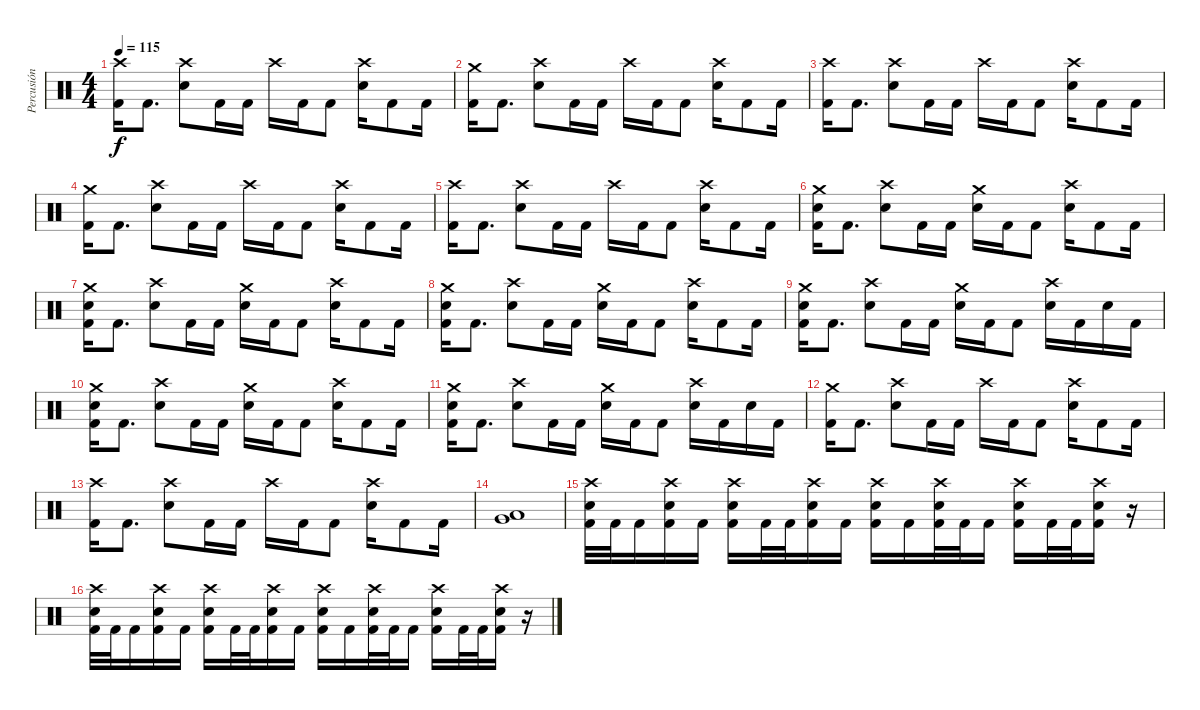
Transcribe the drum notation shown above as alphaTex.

\track ("Percusión" "Percusión") {instrument percussion}
\staff {score}
\articulation defaults
\ts (4 4)
\tempo 115
\clef neutral
\ks c
("Crash high (hit)" "Kick (hit) 2").16{dy f} "Kick (hit) 2".8{d} ("Crash high (hit)" "Snare (hit) 2").8 "Kick (hit) 2".16 "Kick (hit) 2".16 "Crash high (hit)".16 "Kick (hit) 2".16 "Kick (hit) 2".8 ("Crash high (hit)" "Snare (hit) 2").16 "Kick (hit) 2".8 "Kick (hit) 2".16 |
("Crash medium (hit)" "Kick (hit) 2").16 "Kick (hit) 2".8{d} ("Crash high (hit)" "Snare (hit) 2").8 "Kick (hit) 2".16 "Kick (hit) 2".16 "Crash high (hit)".16 "Kick (hit) 2".16 "Kick (hit) 2".8 ("Crash high (hit)" "Snare (hit) 2").16 "Kick (hit) 2".8 "Kick (hit) 2".16 |
("Crash high (hit)" "Kick (hit) 2").16 "Kick (hit) 2".8{d} ("Crash high (hit)" "Snare (hit) 2").8 "Kick (hit) 2".16 "Kick (hit) 2".16 "Crash high (hit)".16 "Kick (hit) 2".16 "Kick (hit) 2".8 ("Crash high (hit)" "Snare (hit) 2").16 "Kick (hit) 2".8 "Kick (hit) 2".16 |
("Crash medium (hit)" "Kick (hit) 2").16 "Kick (hit) 2".8{d} ("Crash high (hit)" "Snare (hit) 2").8 "Kick (hit) 2".16 "Kick (hit) 2".16 "Crash high (hit)".16 "Kick (hit) 2".16 "Kick (hit) 2".8 ("Crash high (hit)" "Snare (hit) 2").16 "Kick (hit) 2".8 "Kick (hit) 2".16 |
("Crash high (hit)" "Kick (hit) 2").16 "Kick (hit) 2".8{d} ("Crash high (hit)" "Snare (hit) 2").8 "Kick (hit) 2".16 "Kick (hit) 2".16 "Crash high (hit)".16 "Kick (hit) 2".16 "Kick (hit) 2".8 ("Crash high (hit)" "Snare (hit) 2").16 "Kick (hit) 2".8 "Kick (hit) 2".16 |
("Crash medium (hit)" "Snare (hit) 2" "Kick (hit) 2").16 "Kick (hit) 2".8{d} ("Crash high (hit)" "Snare (hit) 2").8 "Kick (hit) 2".16 "Kick (hit) 2".16 ("Crash medium (hit)" "Snare (hit) 2").16 "Kick (hit) 2".16 "Kick (hit) 2".8 ("Crash high (hit)" "Snare (hit) 2").16 "Kick (hit) 2".8 "Kick (hit) 2".16 |
("Crash medium (hit)" "Snare (hit) 2" "Kick (hit) 2").16 "Kick (hit) 2".8{d} ("Crash high (hit)" "Snare (hit) 2").8 "Kick (hit) 2".16 "Kick (hit) 2".16 ("Crash medium (hit)" "Snare (hit) 2").16 "Kick (hit) 2".16 "Kick (hit) 2".8 ("Crash high (hit)" "Snare (hit) 2").16 "Kick (hit) 2".8 "Kick (hit) 2".16 |
("Crash medium (hit)" "Snare (hit) 2" "Kick (hit) 2").16 "Kick (hit) 2".8{d} ("Crash high (hit)" "Snare (hit) 2").8 "Kick (hit) 2".16 "Kick (hit) 2".16 ("Crash medium (hit)" "Snare (hit) 2").16 "Kick (hit) 2".16 "Kick (hit) 2".8 ("Crash high (hit)" "Snare (hit) 2").16 "Kick (hit) 2".8 "Kick (hit) 2".16 |
("Crash medium (hit)" "Snare (hit) 2" "Kick (hit) 2").16 "Kick (hit) 2".8{d} ("Crash high (hit)" "Snare (hit) 2").8 "Kick (hit) 2".16 "Kick (hit) 2".16 ("Crash medium (hit)" "Snare (hit) 2").16 "Kick (hit) 2".16 "Kick (hit) 2".8 ("Crash high (hit)" "Snare (hit) 2").16 "Kick (hit) 2".16 "Snare (hit) 2".16 "Kick (hit) 2".16 |
("Crash medium (hit)" "Snare (hit) 2" "Kick (hit) 2").16 "Kick (hit) 2".8{d} ("Crash high (hit)" "Snare (hit) 2").8 "Kick (hit) 2".16 "Kick (hit) 2".16 ("Crash medium (hit)" "Snare (hit) 2").16 "Kick (hit) 2".16 "Kick (hit) 2".8 ("Crash high (hit)" "Snare (hit) 2").16 "Kick (hit) 2".8 "Kick (hit) 2".16 |
("Crash medium (hit)" "Snare (hit) 2" "Kick (hit) 2").16 "Kick (hit) 2".8{d} ("Crash high (hit)" "Snare (hit) 2").8 "Kick (hit) 2".16 "Kick (hit) 2".16 ("Crash medium (hit)" "Snare (hit) 2").16 "Kick (hit) 2".16 "Kick (hit) 2".8 ("Crash high (hit)" "Snare (hit) 2").16 "Kick (hit) 2".16 "Snare (hit) 2".16 "Kick (hit) 2".16 |
("Crash medium (hit)" "Kick (hit) 2").16 "Kick (hit) 2".8{d} ("Crash high (hit)" "Snare (hit) 2").8 "Kick (hit) 2".16 "Kick (hit) 2".16 "Crash high (hit)".16 "Kick (hit) 2".16 "Kick (hit) 2".8 ("Crash high (hit)" "Snare (hit) 2").16 "Kick (hit) 2".8 "Kick (hit) 2".16 |
("Crash high (hit)" "Kick (hit) 2").16 "Kick (hit) 2".8{d} ("Crash high (hit)" "Snare (hit) 2").8 "Kick (hit) 2".16 "Kick (hit) 2".16 "Crash high (hit)".16 "Kick (hit) 2".16 "Kick (hit) 2".8 ("Crash high (hit)" "Snare (hit) 2").16 "Kick (hit) 2".8 "Kick (hit) 2".16 |
("Low Tom (hit)" "Very Low Tom (hit)").1 |
("Crash high (hit)" "Snare (hit) 2" "Kick (hit) 2").32 "Kick (hit) 2".32 "Kick (hit) 2".16 ("Crash high (hit)" "Snare (hit) 2" "Kick (hit) 2").16 "Kick (hit) 2".16 ("Crash high (hit)" "Snare (hit) 2" "Kick (hit) 2").16 "Kick (hit) 2".32 "Kick (hit) 2".32 ("Crash high (hit)" "Snare (hit) 2" "Kick (hit) 2").16 "Kick (hit) 2".16 ("Crash high (hit)" "Snare (hit) 2" "Kick (hit) 2").16 "Kick (hit) 2".16 ("Crash high (hit)" "Snare (hit) 2" "Kick (hit) 2").32 "Kick (hit) 2".32 "Kick (hit) 2".16 ("Crash high (hit)" "Snare (hit) 2" "Kick (hit) 2").16 "Kick (hit) 2".32 "Kick (hit) 2".32 ("Crash high (hit)" "Snare (hit) 2" "Kick (hit) 2").16 r.16 |
("Crash high (hit)" "Snare (hit) 2" "Kick (hit) 2").32 "Kick (hit) 2".32 "Kick (hit) 2".16 ("Crash high (hit)" "Snare (hit) 2" "Kick (hit) 2").16 "Kick (hit) 2".16 ("Crash high (hit)" "Snare (hit) 2" "Kick (hit) 2").16 "Kick (hit) 2".32 "Kick (hit) 2".32 ("Crash high (hit)" "Snare (hit) 2" "Kick (hit) 2").16 "Kick (hit) 2".16 ("Crash high (hit)" "Snare (hit) 2" "Kick (hit) 2").16 "Kick (hit) 2".16 ("Crash high (hit)" "Snare (hit) 2" "Kick (hit) 2").32 "Kick (hit) 2".32 "Kick (hit) 2".16 ("Crash high (hit)" "Snare (hit) 2" "Kick (hit) 2").16 "Kick (hit) 2".32 "Kick (hit) 2".32 ("Crash high (hit)" "Snare (hit) 2" "Kick (hit) 2").16 r.16
